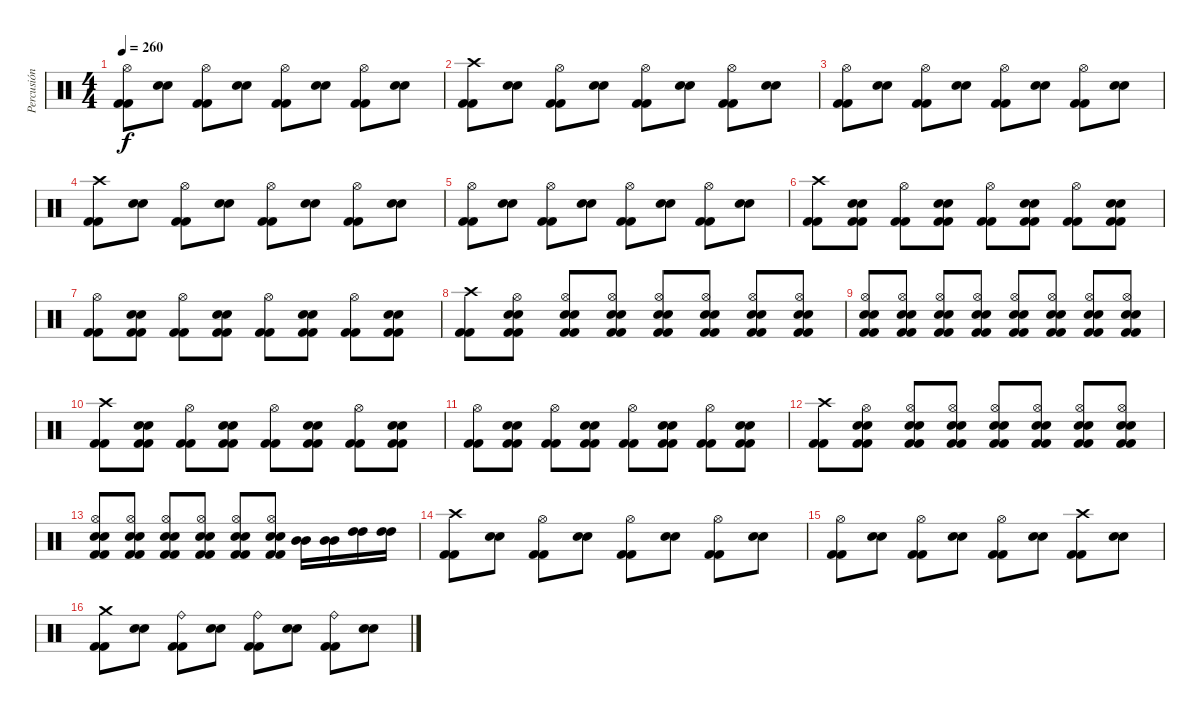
\track ("Percusión" "Percusión") {instrument percussion}
\staff {score}
\articulation defaults
\ts (4 4)
\tempo 260
\clef neutral
\ks c
("Kick (hit) 2" "Kick (hit) 2" "Hi-Hat (open)").8{dy f} ("Electric Snare (hit)" "Electric Snare (hit)").8 ("Kick (hit) 2" "Kick (hit) 2" "Hi-Hat (open)").8 ("Electric Snare (hit)" "Electric Snare (hit)").8 ("Kick (hit) 2" "Kick (hit) 2" "Hi-Hat (open)").8 ("Electric Snare (hit)" "Electric Snare (hit)").8 ("Kick (hit) 2" "Kick (hit) 2" "Hi-Hat (open)").8 ("Electric Snare (hit)" "Electric Snare (hit)").8 |
("Kick (hit) 2" "Kick (hit) 2" "Crash high (hit)").8 ("Electric Snare (hit)" "Electric Snare (hit)").8 ("Kick (hit) 2" "Kick (hit) 2" "Hi-Hat (open)").8 ("Electric Snare (hit)" "Electric Snare (hit)").8 ("Kick (hit) 2" "Kick (hit) 2" "Hi-Hat (open)").8 ("Electric Snare (hit)" "Electric Snare (hit)").8 ("Kick (hit) 2" "Kick (hit) 2" "Hi-Hat (open)").8 ("Electric Snare (hit)" "Electric Snare (hit)").8 |
("Kick (hit) 2" "Kick (hit) 2" "Hi-Hat (open)").8 ("Electric Snare (hit)" "Electric Snare (hit)").8 ("Kick (hit) 2" "Kick (hit) 2" "Hi-Hat (open)").8 ("Electric Snare (hit)" "Electric Snare (hit)").8 ("Kick (hit) 2" "Kick (hit) 2" "Hi-Hat (open)").8 ("Electric Snare (hit)" "Electric Snare (hit)").8 ("Kick (hit) 2" "Kick (hit) 2" "Hi-Hat (open)").8 ("Electric Snare (hit)" "Electric Snare (hit)").8 |
("Kick (hit) 2" "Kick (hit) 2" "Crash high (hit)").8 ("Electric Snare (hit)" "Electric Snare (hit)").8 ("Kick (hit) 2" "Kick (hit) 2" "Hi-Hat (open)").8 ("Electric Snare (hit)" "Electric Snare (hit)").8 ("Kick (hit) 2" "Kick (hit) 2" "Hi-Hat (open)").8 ("Electric Snare (hit)" "Electric Snare (hit)").8 ("Kick (hit) 2" "Kick (hit) 2" "Hi-Hat (open)").8 ("Electric Snare (hit)" "Electric Snare (hit)").8 |
("Kick (hit) 2" "Kick (hit) 2" "Hi-Hat (open)").8 ("Electric Snare (hit)" "Electric Snare (hit)").8 ("Kick (hit) 2" "Kick (hit) 2" "Hi-Hat (open)").8 ("Electric Snare (hit)" "Electric Snare (hit)").8 ("Kick (hit) 2" "Kick (hit) 2" "Hi-Hat (open)").8 ("Electric Snare (hit)" "Electric Snare (hit)").8 ("Kick (hit) 2" "Kick (hit) 2" "Hi-Hat (open)").8 ("Electric Snare (hit)" "Electric Snare (hit)").8 |
("Kick (hit) 2" "Kick (hit) 2" "Crash high (hit)").8 ("Kick (hit) 2" "Kick (hit) 2" "Electric Snare (hit)" "Electric Snare (hit)").8 ("Kick (hit) 2" "Kick (hit) 2" "Hi-Hat (open)").8 ("Kick (hit) 2" "Kick (hit) 2" "Electric Snare (hit)" "Electric Snare (hit)").8 ("Kick (hit) 2" "Kick (hit) 2" "Hi-Hat (open)").8 ("Kick (hit) 2" "Kick (hit) 2" "Electric Snare (hit)" "Electric Snare (hit)").8 ("Kick (hit) 2" "Kick (hit) 2" "Hi-Hat (open)").8 ("Kick (hit) 2" "Kick (hit) 2" "Electric Snare (hit)" "Electric Snare (hit)").8 |
("Kick (hit) 2" "Kick (hit) 2" "Hi-Hat (open)").8 ("Kick (hit) 2" "Kick (hit) 2" "Electric Snare (hit)" "Electric Snare (hit)").8 ("Kick (hit) 2" "Kick (hit) 2" "Hi-Hat (open)").8 ("Kick (hit) 2" "Kick (hit) 2" "Electric Snare (hit)" "Electric Snare (hit)").8 ("Kick (hit) 2" "Kick (hit) 2" "Hi-Hat (open)").8 ("Kick (hit) 2" "Kick (hit) 2" "Electric Snare (hit)" "Electric Snare (hit)").8 ("Kick (hit) 2" "Kick (hit) 2" "Hi-Hat (open)").8 ("Kick (hit) 2" "Kick (hit) 2" "Electric Snare (hit)" "Electric Snare (hit)").8 |
("Kick (hit) 2" "Kick (hit) 2" "Crash high (hit)").8 ("Kick (hit) 2" "Kick (hit) 2" "Electric Snare (hit)" "Electric Snare (hit)" "Hi-Hat (open)").8 ("Kick (hit) 2" "Kick (hit) 2" "Electric Snare (hit)" "Electric Snare (hit)" "Hi-Hat (open)").8 ("Kick (hit) 2" "Kick (hit) 2" "Electric Snare (hit)" "Electric Snare (hit)" "Hi-Hat (open)").8 ("Kick (hit) 2" "Kick (hit) 2" "Electric Snare (hit)" "Electric Snare (hit)" "Hi-Hat (open)").8 ("Kick (hit) 2" "Kick (hit) 2" "Electric Snare (hit)" "Electric Snare (hit)" "Hi-Hat (open)").8 ("Kick (hit) 2" "Kick (hit) 2" "Electric Snare (hit)" "Electric Snare (hit)" "Hi-Hat (open)").8 ("Kick (hit) 2" "Kick (hit) 2" "Electric Snare (hit)" "Electric Snare (hit)" "Hi-Hat (open)").8 |
("Kick (hit) 2" "Kick (hit) 2" "Electric Snare (hit)" "Electric Snare (hit)" "Hi-Hat (open)").8 ("Kick (hit) 2" "Kick (hit) 2" "Electric Snare (hit)" "Electric Snare (hit)" "Hi-Hat (open)").8 ("Kick (hit) 2" "Kick (hit) 2" "Electric Snare (hit)" "Electric Snare (hit)" "Hi-Hat (open)").8 ("Kick (hit) 2" "Kick (hit) 2" "Electric Snare (hit)" "Electric Snare (hit)" "Hi-Hat (open)").8 ("Kick (hit) 2" "Kick (hit) 2" "Electric Snare (hit)" "Electric Snare (hit)" "Hi-Hat (open)").8 ("Kick (hit) 2" "Kick (hit) 2" "Electric Snare (hit)" "Electric Snare (hit)" "Hi-Hat (open)").8 ("Kick (hit) 2" "Kick (hit) 2" "Electric Snare (hit)" "Electric Snare (hit)" "Hi-Hat (open)").8 ("Kick (hit) 2" "Kick (hit) 2" "Electric Snare (hit)" "Electric Snare (hit)" "Hi-Hat (open)").8 |
("Kick (hit) 2" "Kick (hit) 2" "Crash high (hit)").8 ("Kick (hit) 2" "Kick (hit) 2" "Electric Snare (hit)" "Electric Snare (hit)").8 ("Kick (hit) 2" "Kick (hit) 2" "Hi-Hat (open)").8 ("Kick (hit) 2" "Kick (hit) 2" "Electric Snare (hit)" "Electric Snare (hit)").8 ("Kick (hit) 2" "Kick (hit) 2" "Hi-Hat (open)").8 ("Kick (hit) 2" "Kick (hit) 2" "Electric Snare (hit)" "Electric Snare (hit)").8 ("Kick (hit) 2" "Kick (hit) 2" "Hi-Hat (open)").8 ("Kick (hit) 2" "Kick (hit) 2" "Electric Snare (hit)" "Electric Snare (hit)").8 |
("Kick (hit) 2" "Kick (hit) 2" "Hi-Hat (open)").8 ("Kick (hit) 2" "Kick (hit) 2" "Electric Snare (hit)" "Electric Snare (hit)").8 ("Kick (hit) 2" "Kick (hit) 2" "Hi-Hat (open)").8 ("Kick (hit) 2" "Kick (hit) 2" "Electric Snare (hit)" "Electric Snare (hit)").8 ("Kick (hit) 2" "Kick (hit) 2" "Hi-Hat (open)").8 ("Kick (hit) 2" "Kick (hit) 2" "Electric Snare (hit)" "Electric Snare (hit)").8 ("Kick (hit) 2" "Kick (hit) 2" "Hi-Hat (open)").8 ("Kick (hit) 2" "Kick (hit) 2" "Electric Snare (hit)" "Electric Snare (hit)").8 |
("Kick (hit) 2" "Kick (hit) 2" "Crash high (hit)").8 ("Kick (hit) 2" "Kick (hit) 2" "Electric Snare (hit)" "Electric Snare (hit)" "Hi-Hat (open)").8 ("Kick (hit) 2" "Kick (hit) 2" "Electric Snare (hit)" "Electric Snare (hit)" "Hi-Hat (open)").8 ("Kick (hit) 2" "Kick (hit) 2" "Electric Snare (hit)" "Electric Snare (hit)" "Hi-Hat (open)").8 ("Kick (hit) 2" "Kick (hit) 2" "Electric Snare (hit)" "Electric Snare (hit)" "Hi-Hat (open)").8 ("Kick (hit) 2" "Kick (hit) 2" "Electric Snare (hit)" "Electric Snare (hit)" "Hi-Hat (open)").8 ("Kick (hit) 2" "Kick (hit) 2" "Electric Snare (hit)" "Electric Snare (hit)" "Hi-Hat (open)").8 ("Kick (hit) 2" "Kick (hit) 2" "Electric Snare (hit)" "Electric Snare (hit)" "Hi-Hat (open)").8 |
("Kick (hit) 2" "Kick (hit) 2" "Electric Snare (hit)" "Electric Snare (hit)" "Hi-Hat (open)").8 ("Kick (hit) 2" "Kick (hit) 2" "Electric Snare (hit)" "Electric Snare (hit)" "Hi-Hat (open)").8 ("Kick (hit) 2" "Kick (hit) 2" "Electric Snare (hit)" "Electric Snare (hit)" "Hi-Hat (open)").8 ("Kick (hit) 2" "Kick (hit) 2" "Electric Snare (hit)" "Electric Snare (hit)" "Hi-Hat (open)").8 ("Kick (hit) 2" "Kick (hit) 2" "Electric Snare (hit)" "Electric Snare (hit)" "Hi-Hat (open)").8 ("Kick (hit) 2" "Kick (hit) 2" "Electric Snare (hit)" "Electric Snare (hit)" "Hi-Hat (open)").8 ("Mid Tom (hit)" "Mid Tom (hit)").16 ("Mid Tom (hit)" "Mid Tom (hit)").16 ("High Tom (hit)" "High Tom (hit)").16 ("High Tom (hit)" "High Tom (hit)").16 |
("Kick (hit) 2" "Kick (hit) 2" "Crash high (hit)").8 ("Electric Snare (hit)" "Electric Snare (hit)").8 ("Kick (hit) 2" "Kick (hit) 2" "Hi-Hat (open)").8 ("Electric Snare (hit)" "Electric Snare (hit)").8 ("Kick (hit) 2" "Kick (hit) 2" "Hi-Hat (open)").8 ("Electric Snare (hit)" "Electric Snare (hit)").8 ("Kick (hit) 2" "Kick (hit) 2" "Hi-Hat (open)").8 ("Electric Snare (hit)" "Electric Snare (hit)").8 |
("Kick (hit) 2" "Kick (hit) 2" "Hi-Hat (open)").8 ("Electric Snare (hit)" "Electric Snare (hit)").8 ("Kick (hit) 2" "Kick (hit) 2" "Hi-Hat (open)").8 ("Electric Snare (hit)" "Electric Snare (hit)").8 ("Kick (hit) 2" "Kick (hit) 2" "Hi-Hat (open)").8 ("Electric Snare (hit)" "Electric Snare (hit)").8 ("Kick (hit) 2" "Kick (hit) 2" "Crash high (hit)").8 ("Electric Snare (hit)" "Electric Snare (hit)").8 |
("Kick (hit) 2" "Kick (hit) 2" "Crash medium (hit)").8 ("Electric Snare (hit)" "Electric Snare (hit)").8 ("Kick (hit) 2" "Kick (hit) 2" "Ride (bell)").8 ("Electric Snare (hit)" "Electric Snare (hit)").8 ("Kick (hit) 2" "Kick (hit) 2" "Ride (bell)").8 ("Electric Snare (hit)" "Electric Snare (hit)").8 ("Kick (hit) 2" "Kick (hit) 2" "Ride (bell)").8 ("Electric Snare (hit)" "Electric Snare (hit)").8
